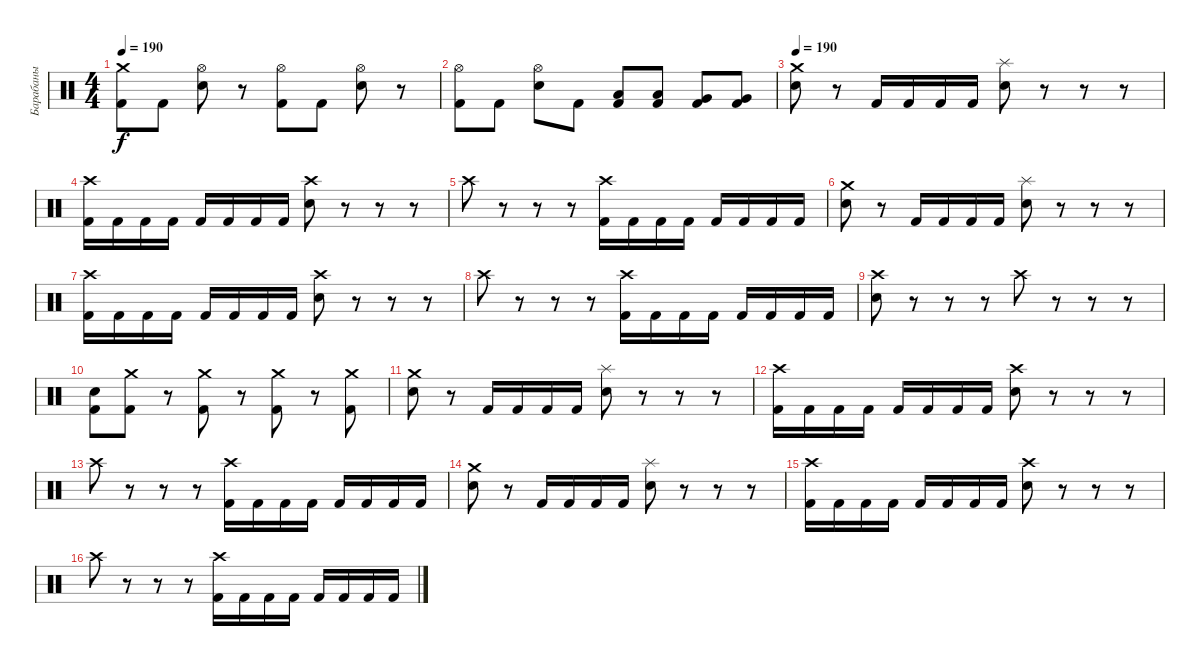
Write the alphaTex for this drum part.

\track ("Барабаны" "Барабаны") {instrument percussion}
\staff {score}
\articulation defaults
\ts (4 4)
\tempo 190
\clef neutral
\ks c
("Crash medium (hit)" "Kick (hit) 2").8{dy f} "Kick (hit) 2".8 ("Hi-Hat (open)" "Electric Snare (hit)").8 r.8 ("Hi-Hat (open)" "Kick (hit) 2").8 "Kick (hit) 2".8 ("Hi-Hat (open)" "Electric Snare (hit)").8 r.8 |
("Hi-Hat (open)" "Kick (hit) 2").8 "Kick (hit) 2".8 ("Hi-Hat (open)" "Electric Snare (hit)").8 "Kick (hit) 2".8 ("Low Tom (hit)" "Kick (hit) 2").8 ("Low Tom (hit)" "Kick (hit) 2").8 ("Very Low Tom (hit)" "Kick (hit) 2").8 ("Very Low Tom (hit)" "Kick (hit) 2").8 |
\tempo 190
("Crash medium (hit)" "Snare (hit) 2").8 r.8 "Kick (hit) 2".16 "Kick (hit) 2".16 "Kick (hit) 2".16 "Kick (hit) 2".16 ("Splash (hit)" "Snare (hit) 2").8 r.8 r.8 r.8 |
("Crash high (hit)" "Kick (hit) 2").16 "Kick (hit) 2".16 "Kick (hit) 2".16 "Kick (hit) 2".16 "Kick (hit) 2".16 "Kick (hit) 2".16 "Kick (hit) 2".16 "Kick (hit) 2".16 ("Crash high (hit)" "Snare (hit) 2").8 r.8 r.8 r.8 |
"Crash high (hit)".8 r.8 r.8 r.8 ("Crash high (hit)" "Kick (hit) 2").16 "Kick (hit) 2".16 "Kick (hit) 2".16 "Kick (hit) 2".16 "Kick (hit) 2".16 "Kick (hit) 2".16 "Kick (hit) 2".16 "Kick (hit) 2".16 |
("Crash medium (hit)" "Snare (hit) 2").8 r.8 "Kick (hit) 2".16 "Kick (hit) 2".16 "Kick (hit) 2".16 "Kick (hit) 2".16 ("Splash (hit)" "Snare (hit) 2").8 r.8 r.8 r.8 |
("Crash high (hit)" "Kick (hit) 2").16 "Kick (hit) 2".16 "Kick (hit) 2".16 "Kick (hit) 2".16 "Kick (hit) 2".16 "Kick (hit) 2".16 "Kick (hit) 2".16 "Kick (hit) 2".16 ("Crash high (hit)" "Snare (hit) 2").8 r.8 r.8 r.8 |
"Crash high (hit)".8 r.8 r.8 r.8 ("Crash high (hit)" "Kick (hit) 2").16 "Kick (hit) 2".16 "Kick (hit) 2".16 "Kick (hit) 2".16 "Kick (hit) 2".16 "Kick (hit) 2".16 "Kick (hit) 2".16 "Kick (hit) 2".16 |
("Crash high (hit)" "Snare (hit) 2").8 r.8 r.8 r.8 "Crash high (hit)".8 r.8 r.8 r.8 |
("Snare (hit) 2" "Kick (hit) 2").8 ("Crash medium (hit)" "Kick (hit) 2").8 r.8 ("Crash medium (hit)" "Kick (hit) 2").8 r.8 ("Crash medium (hit)" "Kick (hit) 2").8 r.8 ("Crash medium (hit)" "Kick (hit) 2").8 |
("Crash medium (hit)" "Snare (hit) 2").8 r.8 "Kick (hit) 2".16 "Kick (hit) 2".16 "Kick (hit) 2".16 "Kick (hit) 2".16 ("Splash (hit)" "Snare (hit) 2").8 r.8 r.8 r.8 |
("Crash high (hit)" "Kick (hit) 2").16 "Kick (hit) 2".16 "Kick (hit) 2".16 "Kick (hit) 2".16 "Kick (hit) 2".16 "Kick (hit) 2".16 "Kick (hit) 2".16 "Kick (hit) 2".16 ("Crash high (hit)" "Snare (hit) 2").8 r.8 r.8 r.8 |
"Crash high (hit)".8 r.8 r.8 r.8 ("Crash high (hit)" "Kick (hit) 2").16 "Kick (hit) 2".16 "Kick (hit) 2".16 "Kick (hit) 2".16 "Kick (hit) 2".16 "Kick (hit) 2".16 "Kick (hit) 2".16 "Kick (hit) 2".16 |
("Crash medium (hit)" "Snare (hit) 2").8 r.8 "Kick (hit) 2".16 "Kick (hit) 2".16 "Kick (hit) 2".16 "Kick (hit) 2".16 ("Splash (hit)" "Snare (hit) 2").8 r.8 r.8 r.8 |
("Crash high (hit)" "Kick (hit) 2").16 "Kick (hit) 2".16 "Kick (hit) 2".16 "Kick (hit) 2".16 "Kick (hit) 2".16 "Kick (hit) 2".16 "Kick (hit) 2".16 "Kick (hit) 2".16 ("Crash high (hit)" "Snare (hit) 2").8 r.8 r.8 r.8 |
"Crash high (hit)".8 r.8 r.8 r.8 ("Crash high (hit)" "Kick (hit) 2").16 "Kick (hit) 2".16 "Kick (hit) 2".16 "Kick (hit) 2".16 "Kick (hit) 2".16 "Kick (hit) 2".16 "Kick (hit) 2".16 "Kick (hit) 2".16
